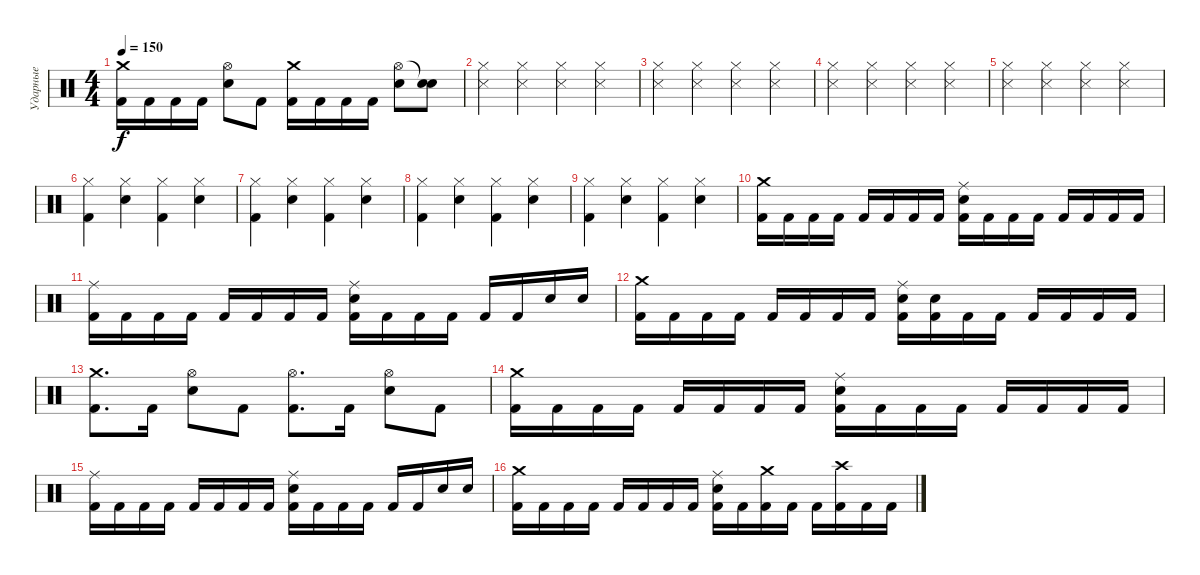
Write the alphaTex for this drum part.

\track ("Ударные" "Ударные") {instrument percussion}
\staff {score}
\articulation defaults
\ts (4 4)
\tempo 150
\clef neutral
\ks c
("Crash medium (hit)" "Kick (hit) 2").16{dy f} "Kick (hit) 2".16 "Kick (hit) 2".16 "Kick (hit) 2".16 ("Hi-Hat (open)" "Snare (hit) 2").8 "Kick (hit) 2".8 ("Crash medium (hit)" "Kick (hit) 2").16 "Kick (hit) 2".16 "Kick (hit) 2".16 "Kick (hit) 2".16 ("Hi-Hat (open)" "Snare (hit) 2").8 ("Snare (hit)"{t} "Snare (hit) 2").8 |
("Hi-Hat (closed)" "Snare (side stick) 3").4 ("Hi-Hat (closed)" "Snare (side stick) 3").4 ("Hi-Hat (closed)" "Snare (side stick) 3").4 ("Hi-Hat (closed)" "Snare (side stick) 3").4 |
("Hi-Hat (closed)" "Snare (side stick) 3").4 ("Hi-Hat (closed)" "Snare (side stick) 3").4 ("Hi-Hat (closed)" "Snare (side stick) 3").4 ("Hi-Hat (closed)" "Snare (side stick) 3").4 |
("Hi-Hat (closed)" "Snare (side stick) 3").4 ("Hi-Hat (closed)" "Snare (side stick) 3").4 ("Hi-Hat (closed)" "Snare (side stick) 3").4 ("Hi-Hat (closed)" "Snare (side stick) 3").4 |
("Hi-Hat (closed)" "Snare (side stick) 3").4 ("Hi-Hat (closed)" "Snare (side stick) 3").4 ("Hi-Hat (closed)" "Snare (side stick) 3").4 ("Hi-Hat (closed)" "Snare (side stick) 3").4 |
("Kick (hit) 2" "Hi-Hat (closed)").4 ("Snare (hit) 2" "Hi-Hat (closed)").4 ("Kick (hit) 2" "Hi-Hat (closed)").4 ("Snare (hit) 2" "Hi-Hat (closed)").4 |
("Kick (hit) 2" "Hi-Hat (closed)").4 ("Snare (hit) 2" "Hi-Hat (closed)").4 ("Kick (hit) 2" "Hi-Hat (closed)").4 ("Snare (hit) 2" "Hi-Hat (closed)").4 |
("Kick (hit) 2" "Hi-Hat (closed)").4 ("Snare (hit) 2" "Hi-Hat (closed)").4 ("Kick (hit) 2" "Hi-Hat (closed)").4 ("Snare (hit) 2" "Hi-Hat (closed)").4 |
("Kick (hit) 2" "Hi-Hat (closed)").4 ("Snare (hit) 2" "Hi-Hat (closed)").4 ("Kick (hit) 2" "Hi-Hat (closed)").4 ("Snare (hit) 2" "Hi-Hat (closed)").4 |
("Crash medium (hit)" "Kick (hit) 2").16 "Kick (hit) 2".16 "Kick (hit) 2".16 "Kick (hit) 2".16 "Kick (hit) 2".16 "Kick (hit) 2".16 "Kick (hit) 2".16 "Kick (hit) 2".16 ("Ride (middle)" "Snare (hit) 2" "Kick (hit) 2").16 "Kick (hit) 2".16 "Kick (hit) 2".16 "Kick (hit) 2".16 "Kick (hit) 2".16 "Kick (hit) 2".16 "Kick (hit) 2".16 "Kick (hit) 2".16 |
("Ride (middle)" "Kick (hit) 2").16 "Kick (hit) 2".16 "Kick (hit) 2".16 "Kick (hit) 2".16 "Kick (hit) 2".16 "Kick (hit) 2".16 "Kick (hit) 2".16 "Kick (hit) 2".16 ("Ride (middle)" "Snare (hit) 2" "Kick (hit) 2").16 "Kick (hit) 2".16 "Kick (hit) 2".16 "Kick (hit) 2".16 "Kick (hit) 2".16 "Kick (hit) 2".16 "Snare (hit) 2".16 "Snare (hit) 2".16 |
("Crash medium (hit)" "Kick (hit) 2").16 "Kick (hit) 2".16 "Kick (hit) 2".16 "Kick (hit) 2".16 "Kick (hit) 2".16 "Kick (hit) 2".16 "Kick (hit) 2".16 "Kick (hit) 2".16 ("Ride (middle)" "Snare (hit) 2" "Kick (hit) 2").16 ("Snare (hit) 2" "Kick (hit) 2").16 "Kick (hit) 2".16 "Kick (hit) 2".16 "Kick (hit) 2".16 "Kick (hit) 2".16 "Kick (hit) 2".16 "Kick (hit) 2".16 |
("Crash medium (hit)" "Kick (hit) 2").8{d} "Kick (hit) 2".16 ("Hi-Hat (open)" "Snare (hit) 2").8 "Kick (hit) 2".8 ("Hi-Hat (open)" "Kick (hit) 2").8{d} "Kick (hit) 2".16 ("Hi-Hat (open)" "Snare (hit) 2").8 "Kick (hit) 2".8 |
("Crash medium (hit)" "Kick (hit) 2").16 "Kick (hit) 2".16 "Kick (hit) 2".16 "Kick (hit) 2".16 "Kick (hit) 2".16 "Kick (hit) 2".16 "Kick (hit) 2".16 "Kick (hit) 2".16 ("Ride (middle)" "Snare (hit) 2" "Kick (hit) 2").16 "Kick (hit) 2".16 "Kick (hit) 2".16 "Kick (hit) 2".16 "Kick (hit) 2".16 "Kick (hit) 2".16 "Kick (hit) 2".16 "Kick (hit) 2".16 |
("Ride (middle)" "Kick (hit) 2").16 "Kick (hit) 2".16 "Kick (hit) 2".16 "Kick (hit) 2".16 "Kick (hit) 2".16 "Kick (hit) 2".16 "Kick (hit) 2".16 "Kick (hit) 2".16 ("Ride (middle)" "Snare (hit) 2" "Kick (hit) 2").16 "Kick (hit) 2".16 "Kick (hit) 2".16 "Kick (hit) 2".16 "Kick (hit) 2".16 "Kick (hit) 2".16 "Snare (hit) 2".16 "Snare (hit) 2".16 |
("Crash medium (hit)" "Kick (hit) 2").16 "Kick (hit) 2".16 "Kick (hit) 2".16 "Kick (hit) 2".16 "Kick (hit) 2".16 "Kick (hit) 2".16 "Kick (hit) 2".16 "Kick (hit) 2".16 ("Ride (middle)" "Snare (hit) 2" "Kick (hit) 2").16 "Kick (hit) 2".16 ("Crash medium (hit)" "Kick (hit) 2").16 "Kick (hit) 2".16 "Kick (hit) 2".16 ("Crash high (hit)" "Kick (hit) 2").16 "Kick (hit) 2".16 "Kick (hit) 2".16
